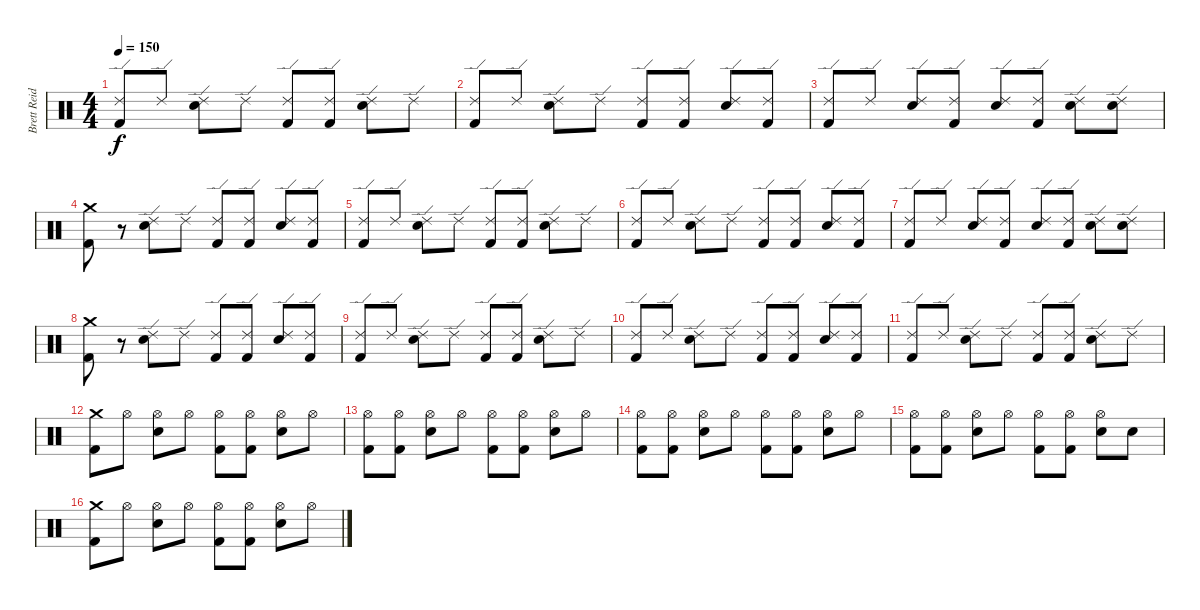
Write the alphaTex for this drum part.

\track ("Brett Reid" "Brett Reid") {instrument percussion}
\staff {score}
\articulation defaults
\ts (4 4)
\tempo 150
\clef neutral
\ks c
("Ride (edge) 2" "Kick (hit) 2").8{dy f} "Ride (edge) 2".8 ("Ride (edge) 2" "Snare (hit) 2").8 "Ride (edge) 2".8 ("Ride (edge) 2" "Kick (hit) 2").8 ("Ride (edge) 2" "Kick (hit) 2").8 ("Ride (edge) 2" "Snare (hit) 2").8 "Ride (edge) 2".8 |
("Ride (edge) 2" "Kick (hit) 2").8 "Ride (edge) 2".8 ("Ride (edge) 2" "Snare (hit) 2").8 "Ride (edge) 2".8 ("Ride (edge) 2" "Kick (hit) 2").8 ("Ride (edge) 2" "Kick (hit) 2").8 ("Ride (edge) 2" "Snare (hit) 2").8 ("Ride (edge) 2" "Kick (hit) 2").8 |
("Ride (edge) 2" "Kick (hit) 2").8 "Ride (edge) 2".8 ("Ride (edge) 2" "Snare (hit) 2").8 ("Ride (edge) 2" "Kick (hit) 2").8 ("Ride (edge) 2" "Snare (hit) 2").8 ("Ride (edge) 2" "Kick (hit) 2").8 ("Ride (edge) 2" "Snare (hit) 2").8 ("Ride (edge) 2" "Snare (hit) 2").8 |
("Crash medium (hit)" "Kick (hit) 2").8 r.8 ("Ride (edge) 2" "Snare (hit) 2").8 "Ride (edge) 2".8 ("Ride (edge) 2" "Kick (hit) 2").8 ("Ride (edge) 2" "Kick (hit) 2").8 ("Ride (edge) 2" "Snare (hit) 2").8 ("Ride (edge) 2" "Kick (hit) 2").8 |
("Ride (edge) 2" "Kick (hit) 2").8 "Ride (edge) 2".8 ("Ride (edge) 2" "Snare (hit) 2").8 "Ride (edge) 2".8 ("Ride (edge) 2" "Kick (hit) 2").8 ("Ride (edge) 2" "Kick (hit) 2").8 ("Ride (edge) 2" "Snare (hit) 2").8 "Ride (edge) 2".8 |
("Ride (edge) 2" "Kick (hit) 2").8 "Ride (edge) 2".8 ("Ride (edge) 2" "Snare (hit) 2").8 "Ride (edge) 2".8 ("Ride (edge) 2" "Kick (hit) 2").8 ("Ride (edge) 2" "Kick (hit) 2").8 ("Ride (edge) 2" "Snare (hit) 2").8 ("Ride (edge) 2" "Kick (hit) 2").8 |
("Ride (edge) 2" "Kick (hit) 2").8 "Ride (edge) 2".8 ("Ride (edge) 2" "Snare (hit) 2").8 ("Ride (edge) 2" "Kick (hit) 2").8 ("Ride (edge) 2" "Snare (hit) 2").8 ("Ride (edge) 2" "Kick (hit) 2").8 ("Ride (edge) 2" "Snare (hit) 2").8 ("Ride (edge) 2" "Snare (hit) 2").8 |
("Crash medium (hit)" "Kick (hit) 2").8 r.8 ("Ride (edge) 2" "Snare (hit) 2").8 "Ride (edge) 2".8 ("Ride (edge) 2" "Kick (hit) 2").8 ("Ride (edge) 2" "Kick (hit) 2").8 ("Ride (edge) 2" "Snare (hit) 2").8 ("Ride (edge) 2" "Kick (hit) 2").8 |
("Ride (edge) 2" "Kick (hit) 2").8 "Ride (edge) 2".8 ("Ride (edge) 2" "Snare (hit) 2").8 "Ride (edge) 2".8 ("Ride (edge) 2" "Kick (hit) 2").8 ("Ride (edge) 2" "Kick (hit) 2").8 ("Ride (edge) 2" "Snare (hit) 2").8 "Ride (edge) 2".8 |
("Ride (edge) 2" "Kick (hit) 2").8 "Ride (edge) 2".8 ("Ride (edge) 2" "Snare (hit) 2").8 "Ride (edge) 2".8 ("Ride (edge) 2" "Kick (hit) 2").8 ("Ride (edge) 2" "Kick (hit) 2").8 ("Ride (edge) 2" "Snare (hit) 2").8 ("Ride (edge) 2" "Kick (hit) 2").8 |
("Ride (edge) 2" "Kick (hit) 2").8 "Ride (edge) 2".8 ("Ride (edge) 2" "Snare (hit) 2").8 "Ride (edge) 2".8 ("Ride (edge) 2" "Kick (hit) 2").8 ("Ride (edge) 2" "Kick (hit) 2").8 ("Ride (edge) 2" "Snare (hit) 2").8 "Ride (edge) 2".8 |
("Crash medium (hit)" "Kick (hit) 2").8 "Hi-Hat (open)".8 ("Hi-Hat (open)" "Snare (hit) 2").8 "Hi-Hat (open)".8 ("Hi-Hat (open)" "Kick (hit) 2").8 ("Hi-Hat (open)" "Kick (hit) 2").8 ("Hi-Hat (open)" "Snare (hit) 2").8 "Hi-Hat (open)".8 |
("Hi-Hat (open)" "Kick (hit) 2").8 ("Hi-Hat (open)" "Kick (hit) 2").8 ("Hi-Hat (open)" "Snare (hit) 2").8 "Hi-Hat (open)".8 ("Hi-Hat (open)" "Kick (hit) 2").8 ("Hi-Hat (open)" "Kick (hit) 2").8 ("Hi-Hat (open)" "Snare (hit) 2").8 "Hi-Hat (open)".8 |
("Hi-Hat (open)" "Kick (hit) 2").8 ("Hi-Hat (open)" "Kick (hit) 2").8 ("Hi-Hat (open)" "Snare (hit) 2").8 "Hi-Hat (open)".8 ("Hi-Hat (open)" "Kick (hit) 2").8 ("Hi-Hat (open)" "Kick (hit) 2").8 ("Hi-Hat (open)" "Snare (hit) 2").8 "Hi-Hat (open)".8 |
("Hi-Hat (open)" "Kick (hit) 2").8 ("Hi-Hat (open)" "Kick (hit) 2").8 ("Hi-Hat (open)" "Snare (hit) 2").8 "Hi-Hat (open)".8 ("Hi-Hat (open)" "Kick (hit) 2").8 ("Hi-Hat (open)" "Kick (hit) 2").8 ("Hi-Hat (open)" "Snare (hit) 2").8 "Snare (hit) 2".8 |
("Crash medium (hit)" "Kick (hit) 2").8 "Hi-Hat (open)".8 ("Hi-Hat (open)" "Snare (hit) 2").8 "Hi-Hat (open)".8 ("Hi-Hat (open)" "Kick (hit) 2").8 ("Hi-Hat (open)" "Kick (hit) 2").8 ("Hi-Hat (open)" "Snare (hit) 2").8 "Hi-Hat (open)".8
